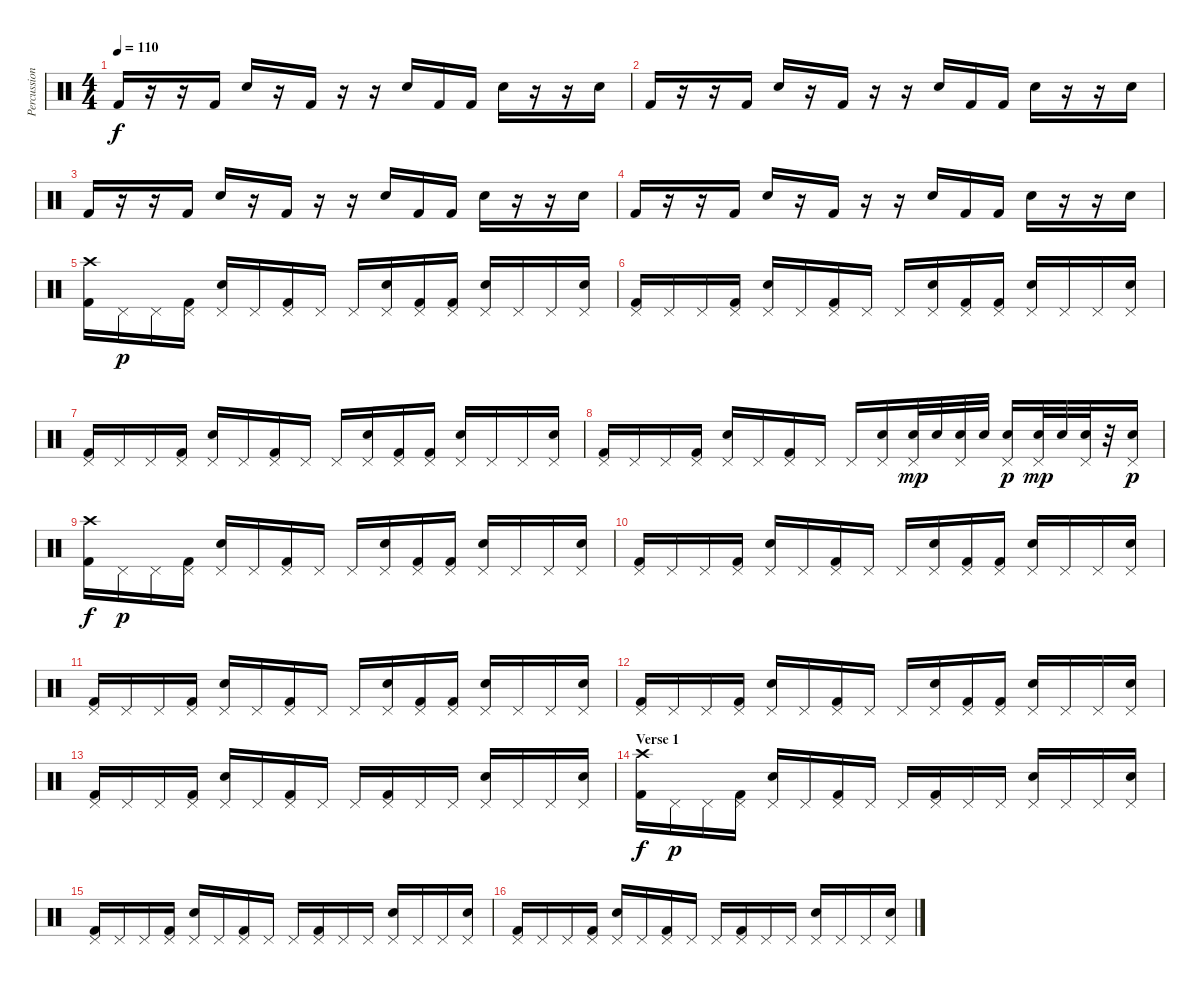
\track ("Percussion" "Percussion") {instrument percussion}
\staff {score}
\articulation defaults
\ts (4 4)
\tempo 110
\clef neutral
\ks c "Kick (hit) 2".16{dy f volume 16}
r.16 r.16 "Kick (hit) 2".16 "Electric Snare (hit)".16 r.16 "Kick (hit) 2".16 r.16 r.16 "Electric Snare (hit)".16 "Kick (hit) 2".16 "Kick (hit) 2".16 "Electric Snare (hit)".16 r.16 r.16 "Electric Snare (hit)".16 |
"Kick (hit) 2".16 r.16 r.16 "Kick (hit) 2".16 "Electric Snare (hit)".16 r.16 "Kick (hit) 2".16 r.16 r.16 "Electric Snare (hit)".16 "Kick (hit) 2".16 "Kick (hit) 2".16 "Electric Snare (hit)".16 r.16 r.16 "Electric Snare (hit)".16 |
"Kick (hit) 2".16 r.16 r.16 "Kick (hit) 2".16 "Electric Snare (hit)".16 r.16 "Kick (hit) 2".16 r.16 r.16 "Electric Snare (hit)".16 "Kick (hit) 2".16 "Kick (hit) 2".16 "Electric Snare (hit)".16 r.16 r.16 "Electric Snare (hit)".16 |
"Kick (hit) 2".16 r.16 r.16 "Kick (hit) 2".16 "Electric Snare (hit)".16 r.16 "Kick (hit) 2".16 r.16 r.16 "Electric Snare (hit)".16 "Kick (hit) 2".16 "Kick (hit) 2".16 "Electric Snare (hit)".16 r.16 r.16 "Electric Snare (hit)".16 |
("Crash high (hit)" "Kick (hit) 2").16{volume 16} "Pedal Hi-Hat (hit)".16{dy p} "Pedal Hi-Hat (hit)".16 ("Pedal Hi-Hat (hit)" "Kick (hit) 2").16 ("Pedal Hi-Hat (hit)" "Electric Snare (hit)").16 "Pedal Hi-Hat (hit)".16 ("Pedal Hi-Hat (hit)" "Kick (hit) 2").16 "Pedal Hi-Hat (hit)".16 "Pedal Hi-Hat (hit)".16 ("Pedal Hi-Hat (hit)" "Electric Snare (hit)").16 ("Pedal Hi-Hat (hit)" "Kick (hit) 2").16 ("Pedal Hi-Hat (hit)" "Kick (hit) 2").16 ("Pedal Hi-Hat (hit)" "Electric Snare (hit)").16 "Pedal Hi-Hat (hit)".16 "Pedal Hi-Hat (hit)".16 ("Pedal Hi-Hat (hit)" "Electric Snare (hit)").16 |
("Pedal Hi-Hat (hit)" "Kick (hit) 2").16 "Pedal Hi-Hat (hit)".16 "Pedal Hi-Hat (hit)".16 ("Pedal Hi-Hat (hit)" "Kick (hit) 2").16 ("Pedal Hi-Hat (hit)" "Electric Snare (hit)").16 "Pedal Hi-Hat (hit)".16 ("Pedal Hi-Hat (hit)" "Kick (hit) 2").16 "Pedal Hi-Hat (hit)".16 "Pedal Hi-Hat (hit)".16 ("Pedal Hi-Hat (hit)" "Electric Snare (hit)").16 ("Pedal Hi-Hat (hit)" "Kick (hit) 2").16 ("Pedal Hi-Hat (hit)" "Kick (hit) 2").16 ("Pedal Hi-Hat (hit)" "Electric Snare (hit)").16 "Pedal Hi-Hat (hit)".16 "Pedal Hi-Hat (hit)".16 ("Pedal Hi-Hat (hit)" "Electric Snare (hit)").16 |
("Pedal Hi-Hat (hit)" "Kick (hit) 2").16 "Pedal Hi-Hat (hit)".16 "Pedal Hi-Hat (hit)".16 ("Pedal Hi-Hat (hit)" "Kick (hit) 2").16 ("Pedal Hi-Hat (hit)" "Electric Snare (hit)").16 "Pedal Hi-Hat (hit)".16 ("Pedal Hi-Hat (hit)" "Kick (hit) 2").16 "Pedal Hi-Hat (hit)".16 "Pedal Hi-Hat (hit)".16 ("Pedal Hi-Hat (hit)" "Electric Snare (hit)").16 ("Pedal Hi-Hat (hit)" "Kick (hit) 2").16 ("Pedal Hi-Hat (hit)" "Kick (hit) 2").16 ("Pedal Hi-Hat (hit)" "Electric Snare (hit)").16 "Pedal Hi-Hat (hit)".16 "Pedal Hi-Hat (hit)".16 ("Pedal Hi-Hat (hit)" "Electric Snare (hit)").16 |
("Pedal Hi-Hat (hit)" "Kick (hit) 2").16 "Pedal Hi-Hat (hit)".16 "Pedal Hi-Hat (hit)".16 ("Pedal Hi-Hat (hit)" "Kick (hit) 2").16 ("Pedal Hi-Hat (hit)" "Electric Snare (hit)").16 "Pedal Hi-Hat (hit)".16 ("Pedal Hi-Hat (hit)" "Kick (hit) 2").16 "Pedal Hi-Hat (hit)".16 "Pedal Hi-Hat (hit)".16 ("Pedal Hi-Hat (hit)" "Electric Snare (hit)").16 ("Pedal Hi-Hat (hit)" "Snare (hit)").32{dy mp} "Snare (hit)".32 ("Pedal Hi-Hat (hit)" "Snare (hit)").32 "Snare (hit)".32 ("Pedal Hi-Hat (hit)" "Electric Snare (hit)").16{dy p} ("Pedal Hi-Hat (hit)" "Snare (hit)").32{dy mp} "Snare (hit)".32 ("Pedal Hi-Hat (hit)" "Snare (hit)").32 r.32 ("Pedal Hi-Hat (hit)" "Electric Snare (hit)").16{dy p} |
("Crash high (hit)" "Kick (hit) 2").16{dy f volume 16} "Pedal Hi-Hat (hit)".16{dy p} "Pedal Hi-Hat (hit)".16 ("Pedal Hi-Hat (hit)" "Kick (hit) 2").16 ("Pedal Hi-Hat (hit)" "Electric Snare (hit)").16 "Pedal Hi-Hat (hit)".16 ("Pedal Hi-Hat (hit)" "Kick (hit) 2").16 "Pedal Hi-Hat (hit)".16 "Pedal Hi-Hat (hit)".16 ("Pedal Hi-Hat (hit)" "Electric Snare (hit)").16 ("Pedal Hi-Hat (hit)" "Kick (hit) 2").16 ("Pedal Hi-Hat (hit)" "Kick (hit) 2").16 ("Pedal Hi-Hat (hit)" "Electric Snare (hit)").16 "Pedal Hi-Hat (hit)".16 "Pedal Hi-Hat (hit)".16 ("Pedal Hi-Hat (hit)" "Electric Snare (hit)").16 |
("Pedal Hi-Hat (hit)" "Kick (hit) 2").16 "Pedal Hi-Hat (hit)".16 "Pedal Hi-Hat (hit)".16 ("Pedal Hi-Hat (hit)" "Kick (hit) 2").16 ("Pedal Hi-Hat (hit)" "Electric Snare (hit)").16 "Pedal Hi-Hat (hit)".16 ("Pedal Hi-Hat (hit)" "Kick (hit) 2").16 "Pedal Hi-Hat (hit)".16 "Pedal Hi-Hat (hit)".16 ("Pedal Hi-Hat (hit)" "Electric Snare (hit)").16 ("Pedal Hi-Hat (hit)" "Kick (hit) 2").16 ("Pedal Hi-Hat (hit)" "Kick (hit) 2").16 ("Pedal Hi-Hat (hit)" "Electric Snare (hit)").16 "Pedal Hi-Hat (hit)".16 "Pedal Hi-Hat (hit)".16 ("Pedal Hi-Hat (hit)" "Electric Snare (hit)").16 |
("Pedal Hi-Hat (hit)" "Kick (hit) 2").16 "Pedal Hi-Hat (hit)".16 "Pedal Hi-Hat (hit)".16 ("Pedal Hi-Hat (hit)" "Kick (hit) 2").16 ("Pedal Hi-Hat (hit)" "Electric Snare (hit)").16 "Pedal Hi-Hat (hit)".16 ("Pedal Hi-Hat (hit)" "Kick (hit) 2").16 "Pedal Hi-Hat (hit)".16 "Pedal Hi-Hat (hit)".16 ("Pedal Hi-Hat (hit)" "Electric Snare (hit)").16 ("Pedal Hi-Hat (hit)" "Kick (hit) 2").16 ("Pedal Hi-Hat (hit)" "Kick (hit) 2").16 ("Pedal Hi-Hat (hit)" "Electric Snare (hit)").16 "Pedal Hi-Hat (hit)".16 "Pedal Hi-Hat (hit)".16 ("Pedal Hi-Hat (hit)" "Electric Snare (hit)").16 |
("Pedal Hi-Hat (hit)" "Kick (hit) 2").16 "Pedal Hi-Hat (hit)".16 "Pedal Hi-Hat (hit)".16 ("Pedal Hi-Hat (hit)" "Kick (hit) 2").16 ("Pedal Hi-Hat (hit)" "Electric Snare (hit)").16 "Pedal Hi-Hat (hit)".16 ("Pedal Hi-Hat (hit)" "Kick (hit) 2").16 "Pedal Hi-Hat (hit)".16 "Pedal Hi-Hat (hit)".16 ("Pedal Hi-Hat (hit)" "Electric Snare (hit)").16 ("Pedal Hi-Hat (hit)" "Kick (hit) 2").16 ("Pedal Hi-Hat (hit)" "Kick (hit) 2").16 ("Pedal Hi-Hat (hit)" "Electric Snare (hit)").16 "Pedal Hi-Hat (hit)".16 "Pedal Hi-Hat (hit)".16 ("Pedal Hi-Hat (hit)" "Electric Snare (hit)").16 |
("Pedal Hi-Hat (hit)" "Kick (hit) 2").16 "Pedal Hi-Hat (hit)".16 "Pedal Hi-Hat (hit)".16 ("Pedal Hi-Hat (hit)" "Kick (hit) 2").16 ("Pedal Hi-Hat (hit)" "Electric Snare (hit)").16 "Pedal Hi-Hat (hit)".16 ("Pedal Hi-Hat (hit)" "Kick (hit) 2").16 "Pedal Hi-Hat (hit)".16 "Pedal Hi-Hat (hit)".16 ("Pedal Hi-Hat (hit)" "Kick (hit) 2").16 "Pedal Hi-Hat (hit)".16 "Pedal Hi-Hat (hit)".16 ("Pedal Hi-Hat (hit)" "Electric Snare (hit)").16 "Pedal Hi-Hat (hit)".16 "Pedal Hi-Hat (hit)".16 ("Pedal Hi-Hat (hit)" "Electric Snare (hit)").16 |
\section ("" "Verse 1")
("Crash high (hit)" "Kick (hit) 2").16{dy f volume 16} "Pedal Hi-Hat (hit)".16{dy p} "Pedal Hi-Hat (hit)".16 ("Pedal Hi-Hat (hit)" "Kick (hit) 2").16 ("Pedal Hi-Hat (hit)" "Electric Snare (hit)").16 "Pedal Hi-Hat (hit)".16 ("Pedal Hi-Hat (hit)" "Kick (hit) 2").16 "Pedal Hi-Hat (hit)".16 "Pedal Hi-Hat (hit)".16 ("Pedal Hi-Hat (hit)" "Kick (hit) 2").16 "Pedal Hi-Hat (hit)".16 "Pedal Hi-Hat (hit)".16 ("Pedal Hi-Hat (hit)" "Electric Snare (hit)").16 "Pedal Hi-Hat (hit)".16 "Pedal Hi-Hat (hit)".16 ("Pedal Hi-Hat (hit)" "Electric Snare (hit)").16 |
("Pedal Hi-Hat (hit)" "Kick (hit) 2").16 "Pedal Hi-Hat (hit)".16 "Pedal Hi-Hat (hit)".16 ("Pedal Hi-Hat (hit)" "Kick (hit) 2").16 ("Pedal Hi-Hat (hit)" "Electric Snare (hit)").16 "Pedal Hi-Hat (hit)".16 ("Pedal Hi-Hat (hit)" "Kick (hit) 2").16 "Pedal Hi-Hat (hit)".16 "Pedal Hi-Hat (hit)".16 ("Pedal Hi-Hat (hit)" "Kick (hit) 2").16 "Pedal Hi-Hat (hit)".16 "Pedal Hi-Hat (hit)".16 ("Pedal Hi-Hat (hit)" "Electric Snare (hit)").16 "Pedal Hi-Hat (hit)".16 "Pedal Hi-Hat (hit)".16 ("Pedal Hi-Hat (hit)" "Electric Snare (hit)").16 |
("Pedal Hi-Hat (hit)" "Kick (hit) 2").16 "Pedal Hi-Hat (hit)".16 "Pedal Hi-Hat (hit)".16 ("Pedal Hi-Hat (hit)" "Kick (hit) 2").16 ("Pedal Hi-Hat (hit)" "Electric Snare (hit)").16 "Pedal Hi-Hat (hit)".16 ("Pedal Hi-Hat (hit)" "Kick (hit) 2").16 "Pedal Hi-Hat (hit)".16 "Pedal Hi-Hat (hit)".16 ("Pedal Hi-Hat (hit)" "Kick (hit) 2").16 "Pedal Hi-Hat (hit)".16 "Pedal Hi-Hat (hit)".16 ("Pedal Hi-Hat (hit)" "Electric Snare (hit)").16 "Pedal Hi-Hat (hit)".16 "Pedal Hi-Hat (hit)".16 ("Pedal Hi-Hat (hit)" "Electric Snare (hit)").16
